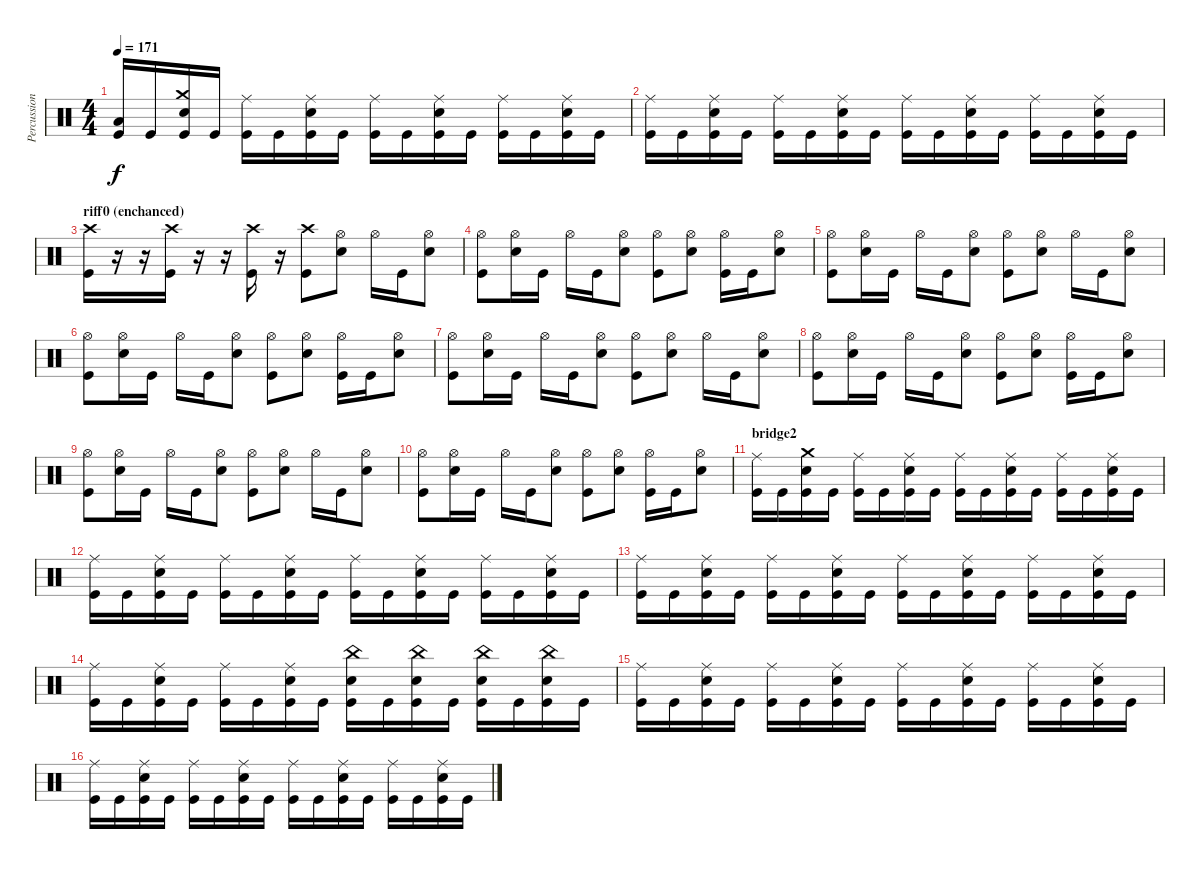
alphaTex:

\track ("Percussion" "Percussion") {instrument percussion}
\staff {score}
\articulation defaults
\ts (4 4)
\tempo 171
\clef neutral
\ks c
("Kick (hit)" "Low Tom (hit)").16{dy f} "Kick (hit)".16 ("Kick (hit)" "Crash medium (hit)" "Snare (hit) 2").16 "Kick (hit)".16 ("Kick (hit)" "Ride (middle)").16 "Kick (hit)".16 ("Kick (hit)" "Ride (middle)" "Snare (hit) 2").16 "Kick (hit)".16 ("Kick (hit)" "Ride (middle)").16 "Kick (hit)".16 ("Kick (hit)" "Ride (middle)" "Snare (hit) 2").16 "Kick (hit)".16 ("Kick (hit)" "Ride (middle)").16 "Kick (hit)".16 ("Kick (hit)" "Ride (middle)" "Snare (hit) 2").16 "Kick (hit)".16 |
("Kick (hit)" "Ride (middle)").16 "Kick (hit)".16 ("Kick (hit)" "Ride (middle)" "Snare (hit) 2").16 "Kick (hit)".16 ("Kick (hit)" "Ride (middle)").16 "Kick (hit)".16 ("Kick (hit)" "Ride (middle)" "Snare (hit) 2").16 "Kick (hit)".16 ("Kick (hit)" "Ride (middle)").16 "Kick (hit)".16 ("Kick (hit)" "Ride (middle)" "Snare (hit) 2").16 "Kick (hit)".16 ("Kick (hit)" "Ride (middle)").16 "Kick (hit)".16 ("Kick (hit)" "Ride (middle)" "Snare (hit) 2").16 "Kick (hit)".16 |
\section ("" "riff0 (enchanced)")
("Kick (hit)" "Crash high (hit)").16 r.16 r.16 ("Kick (hit)" "Crash high (hit)").16 r.16 r.16 ("Kick (hit)" "Crash high (hit)").16 r.16 ("Kick (hit)" "Crash high (hit)").8 ("Hi-Hat (open)" "Snare (hit) 2").8 "Hi-Hat (open)".16 "Kick (hit)".16 ("Hi-Hat (open)" "Snare (hit) 2").8 |
("Kick (hit)" "Hi-Hat (open)").8 ("Hi-Hat (open)" "Snare (hit) 2").16 "Kick (hit)".16 "Hi-Hat (open)".16 "Kick (hit)".16 ("Hi-Hat (open)" "Snare (hit) 2").8 ("Kick (hit)" "Hi-Hat (open)").8 ("Hi-Hat (open)" "Snare (hit) 2").8 ("Kick (hit)" "Hi-Hat (open)").16 "Kick (hit)".16 ("Hi-Hat (open)" "Snare (hit) 2").8 |
("Kick (hit)" "Hi-Hat (open)").8 ("Hi-Hat (open)" "Snare (hit) 2").16 "Kick (hit)".16 "Hi-Hat (open)".16 "Kick (hit)".16 ("Hi-Hat (open)" "Snare (hit) 2").8 ("Kick (hit)" "Hi-Hat (open)").8 ("Hi-Hat (open)" "Snare (hit) 2").8 "Hi-Hat (open)".16 "Kick (hit)".16 ("Hi-Hat (open)" "Snare (hit) 2").8 |
("Kick (hit)" "Hi-Hat (open)").8 ("Hi-Hat (open)" "Snare (hit) 2").16 "Kick (hit)".16 "Hi-Hat (open)".16 "Kick (hit)".16 ("Hi-Hat (open)" "Snare (hit) 2").8 ("Kick (hit)" "Hi-Hat (open)").8 ("Hi-Hat (open)" "Snare (hit) 2").8 ("Kick (hit)" "Hi-Hat (open)").16 "Kick (hit)".16 ("Hi-Hat (open)" "Snare (hit) 2").8 |
("Kick (hit)" "Hi-Hat (open)").8 ("Hi-Hat (open)" "Snare (hit) 2").16 "Kick (hit)".16 "Hi-Hat (open)".16 "Kick (hit)".16 ("Hi-Hat (open)" "Snare (hit) 2").8 ("Kick (hit)" "Hi-Hat (open)").8 ("Hi-Hat (open)" "Snare (hit) 2").8 "Hi-Hat (open)".16 "Kick (hit)".16 ("Hi-Hat (open)" "Snare (hit) 2").8 |
("Kick (hit)" "Hi-Hat (open)").8 ("Hi-Hat (open)" "Snare (hit) 2").16 "Kick (hit)".16 "Hi-Hat (open)".16 "Kick (hit)".16 ("Hi-Hat (open)" "Snare (hit) 2").8 ("Kick (hit)" "Hi-Hat (open)").8 ("Hi-Hat (open)" "Snare (hit) 2").8 ("Kick (hit)" "Hi-Hat (open)").16 "Kick (hit)".16 ("Hi-Hat (open)" "Snare (hit) 2").8 |
("Kick (hit)" "Hi-Hat (open)").8 ("Hi-Hat (open)" "Snare (hit) 2").16 "Kick (hit)".16 "Hi-Hat (open)".16 "Kick (hit)".16 ("Hi-Hat (open)" "Snare (hit) 2").8 ("Kick (hit)" "Hi-Hat (open)").8 ("Hi-Hat (open)" "Snare (hit) 2").8 "Hi-Hat (open)".16 "Kick (hit)".16 ("Hi-Hat (open)" "Snare (hit) 2").8 |
("Kick (hit)" "Hi-Hat (open)").8 ("Hi-Hat (open)" "Snare (hit) 2").16 "Kick (hit)".16 "Hi-Hat (open)".16 "Kick (hit)".16 ("Hi-Hat (open)" "Snare (hit) 2").8 ("Kick (hit)" "Hi-Hat (open)").8 ("Hi-Hat (open)" "Snare (hit) 2").8 ("Kick (hit)" "Hi-Hat (open)").16 "Kick (hit)".16 ("Hi-Hat (open)" "Snare (hit) 2").8 |
\section ("" "bridge2")
("Kick (hit)" "Ride (middle)").16 "Kick (hit)".16 ("Kick (hit)" "Crash medium (hit)" "Snare (hit) 2").16 "Kick (hit)".16 ("Kick (hit)" "Ride (middle)").16 "Kick (hit)".16 ("Kick (hit)" "Ride (middle)" "Snare (hit) 2").16 "Kick (hit)".16 ("Kick (hit)" "Ride (middle)").16 "Kick (hit)".16 ("Kick (hit)" "Ride (middle)" "Snare (hit) 2").16 "Kick (hit)".16 ("Kick (hit)" "Ride (middle)").16 "Kick (hit)".16 ("Kick (hit)" "Ride (middle)" "Snare (hit) 2").16 "Kick (hit)".16 |
("Kick (hit)" "Ride (middle)").16 "Kick (hit)".16 ("Kick (hit)" "Ride (middle)" "Snare (hit) 2").16 "Kick (hit)".16 ("Kick (hit)" "Ride (middle)").16 "Kick (hit)".16 ("Kick (hit)" "Ride (middle)" "Snare (hit) 2").16 "Kick (hit)".16 ("Kick (hit)" "Ride (middle)").16 "Kick (hit)".16 ("Kick (hit)" "Ride (middle)" "Snare (hit) 2").16 "Kick (hit)".16 ("Kick (hit)" "Ride (middle)").16 "Kick (hit)".16 ("Kick (hit)" "Ride (middle)" "Snare (hit) 2").16 "Kick (hit)".16 |
("Kick (hit)" "Ride (middle)").16 "Kick (hit)".16 ("Kick (hit)" "Ride (middle)" "Snare (hit) 2").16 "Kick (hit)".16 ("Kick (hit)" "Ride (middle)").16 "Kick (hit)".16 ("Kick (hit)" "Ride (middle)" "Snare (hit) 2").16 "Kick (hit)".16 ("Kick (hit)" "Ride (middle)").16 "Kick (hit)".16 ("Kick (hit)" "Ride (middle)" "Snare (hit) 2").16 "Kick (hit)".16 ("Kick (hit)" "Ride (middle)").16 "Kick (hit)".16 ("Kick (hit)" "Ride (middle)" "Snare (hit) 2").16 "Kick (hit)".16 |
("Kick (hit)" "Ride (middle)").16 "Kick (hit)".16 ("Kick (hit)" "Ride (middle)" "Snare (hit) 2").16 "Kick (hit)".16 ("Kick (hit)" "Ride (middle)").16 "Kick (hit)".16 ("Kick (hit)" "Ride (middle)" "Snare (hit) 2").16 "Kick (hit)".16 ("Kick (hit)" "China (hit)" "Snare (hit) 2").16 "Kick (hit)".16 ("Kick (hit)" "China (hit)" "Snare (hit) 2").16 "Kick (hit)".16 ("Kick (hit)" "China (hit)" "Snare (hit) 2").16 "Kick (hit)".16 ("Kick (hit)" "China (hit)" "Snare (hit) 2").16 "Kick (hit)".16 |
("Kick (hit)" "Ride (middle)").16 "Kick (hit)".16 ("Kick (hit)" "Ride (middle)" "Snare (hit) 2").16 "Kick (hit)".16 ("Kick (hit)" "Ride (middle)").16 "Kick (hit)".16 ("Kick (hit)" "Ride (middle)" "Snare (hit) 2").16 "Kick (hit)".16 ("Kick (hit)" "Ride (middle)").16 "Kick (hit)".16 ("Kick (hit)" "Ride (middle)" "Snare (hit) 2").16 "Kick (hit)".16 ("Kick (hit)" "Ride (middle)").16 "Kick (hit)".16 ("Kick (hit)" "Ride (middle)" "Snare (hit) 2").16 "Kick (hit)".16 |
("Kick (hit)" "Ride (middle)").16 "Kick (hit)".16 ("Kick (hit)" "Ride (middle)" "Snare (hit) 2").16 "Kick (hit)".16 ("Kick (hit)" "Ride (middle)").16 "Kick (hit)".16 ("Kick (hit)" "Ride (middle)" "Snare (hit) 2").16 "Kick (hit)".16 ("Kick (hit)" "Ride (middle)").16 "Kick (hit)".16 ("Kick (hit)" "Ride (middle)" "Snare (hit) 2").16 "Kick (hit)".16 ("Kick (hit)" "Ride (middle)").16 "Kick (hit)".16 ("Kick (hit)" "Ride (middle)" "Snare (hit) 2").16 "Kick (hit)".16
